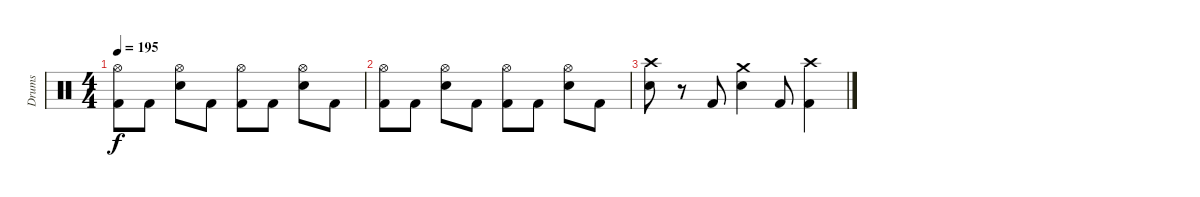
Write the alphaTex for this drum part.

\track ("Drums" "Drums") {instrument percussion}
\staff {score}
\articulation defaults
\ts (4 4)
\tempo 195
\clef neutral
\ks c
("Hi-Hat (open)" "Kick (hit) 2").8{dy f} "Kick (hit) 2".8 ("Hi-Hat (open)" "Electric Snare (hit)").8 "Kick (hit) 2".8 ("Hi-Hat (open)" "Kick (hit) 2").8 "Kick (hit) 2".8 ("Hi-Hat (open)" "Electric Snare (hit)").8 "Kick (hit) 2".8 |
("Hi-Hat (open)" "Kick (hit) 2").8 "Kick (hit) 2".8 ("Hi-Hat (open)" "Electric Snare (hit)").8 "Kick (hit) 2".8 ("Hi-Hat (open)" "Kick (hit) 2").8 "Kick (hit) 2".8 ("Hi-Hat (open)" "Electric Snare (hit)").8 "Kick (hit) 2".8 |
("Crash high (hit)" "Electric Snare (hit)").8 r.8 "Kick (hit) 2".8 ("Crash medium (hit)" "Electric Snare (hit)").4 "Kick (hit) 2".8 ("Crash high (hit)" "Kick (hit) 2").4
